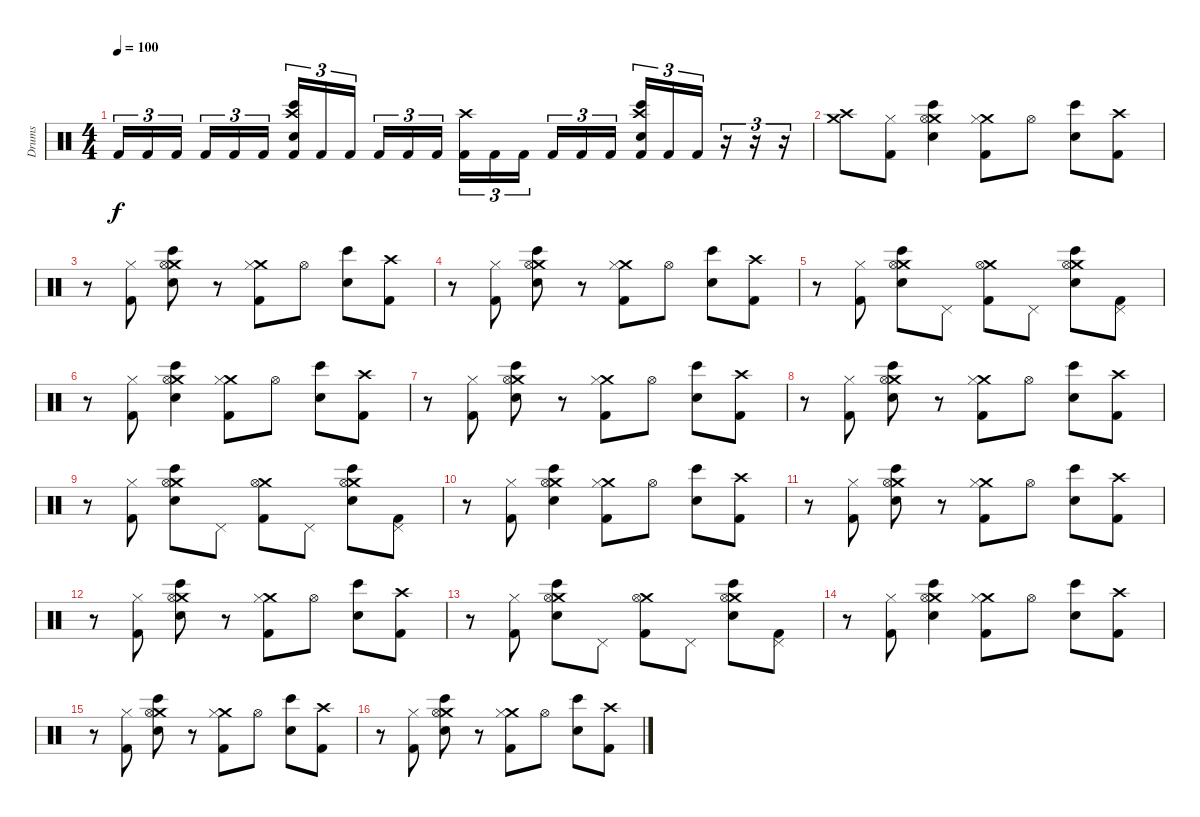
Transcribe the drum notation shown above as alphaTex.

\track ("Drums" "Drums") {instrument percussion}
\staff {score}
\articulation defaults
\ts (4 4)
\tempo 100
\clef neutral
\ks c "Kick (hit) 2".16{tu (3 2) dy f} "Kick (hit) 2".16{tu (3 2)} "Kick (hit) 2".16{tu (3 2) beam splitsecondary} "Kick (hit) 2".16{tu (3 2)} "Kick (hit) 2".16{tu (3 2)} "Kick (hit) 2".16{tu (3 2)}
("Crash high (hit)" "Kick (hit) 2" "Bongo High (hit)" "Electric Snare (hit)").16{tu (3 2)} "Kick (hit) 2".16{tu (3 2)} "Kick (hit) 2".16{tu (3 2) beam splitsecondary} "Kick (hit) 2".16{tu (3 2)} "Kick (hit) 2".16{tu (3 2)} "Kick (hit) 2".16{tu (3 2)} ("Crash high (hit)" "Kick (hit) 2").16{tu (3 2)} "Kick (hit) 2".16{tu (3 2)} "Kick (hit) 2".16{tu (3 2) beam splitsecondary} "Kick (hit) 2".16{tu (3 2)} "Kick (hit) 2".16{tu (3 2)} "Kick (hit) 2".16{tu (3 2)} ("Crash high (hit)" "Kick (hit) 2" "Bongo High (hit)" "Electric Snare (hit)").16{tu (3 2)} "Kick (hit) 2".16{tu (3 2)} "Kick (hit) 2".16{tu (3 2)} r.16{tu (3 2)} r.16{tu (3 2)} r.16{tu (3 2)} |
("Crash medium (hit)" "Crash high (hit)").8 ("Hi-Hat (closed)" "Kick (hit) 2").8 ("Crash medium (hit)" "Hi-Hat (open)" "Bongo High (hit)" "Electric Snare (hit)").4 ("Crash medium (hit)" "Hi-Hat (closed)" "Kick (hit) 2").8 "Hi-Hat (open)".8 ("Bongo High (hit)" "Electric Snare (hit)").8 ("Crash high (hit)" "Kick (hit) 2").8 |
r.8 ("Hi-Hat (closed)" "Kick (hit) 2").8 ("Crash medium (hit)" "Hi-Hat (open)" "Bongo High (hit)" "Electric Snare (hit)").8 r.8 ("Crash medium (hit)" "Hi-Hat (closed)" "Kick (hit) 2").8 "Hi-Hat (open)".8 ("Bongo High (hit)" "Electric Snare (hit)").8 ("Crash high (hit)" "Kick (hit) 2").8 |
r.8 ("Hi-Hat (closed)" "Kick (hit) 2").8 ("Crash medium (hit)" "Hi-Hat (open)" "Bongo High (hit)" "Electric Snare (hit)").8 r.8 ("Crash medium (hit)" "Hi-Hat (closed)" "Kick (hit) 2").8 "Hi-Hat (open)".8 ("Bongo High (hit)" "Electric Snare (hit)").8 ("Crash high (hit)" "Kick (hit) 2").8 |
r.8 ("Hi-Hat (closed)" "Kick (hit) 2").8 ("Crash medium (hit)" "Hi-Hat (open)" "Bongo High (hit)" "Electric Snare (hit)").8 "Pedal Hi-Hat (hit)".8 ("Crash medium (hit)" "Hi-Hat (open)" "Kick (hit) 2").8 "Pedal Hi-Hat (hit)".8 ("Crash medium (hit)" "Hi-Hat (open)" "Bongo High (hit)" "Electric Snare (hit)").8 ("Pedal Hi-Hat (hit)" "Kick (hit) 2").8 |
r.8 ("Hi-Hat (closed)" "Kick (hit) 2").8 ("Crash medium (hit)" "Hi-Hat (open)" "Bongo High (hit)" "Electric Snare (hit)").4 ("Crash medium (hit)" "Hi-Hat (closed)" "Kick (hit) 2").8 "Hi-Hat (open)".8 ("Bongo High (hit)" "Electric Snare (hit)").8 ("Crash high (hit)" "Kick (hit) 2").8 |
r.8 ("Hi-Hat (closed)" "Kick (hit) 2").8 ("Crash medium (hit)" "Hi-Hat (open)" "Bongo High (hit)" "Electric Snare (hit)").8 r.8 ("Crash medium (hit)" "Hi-Hat (closed)" "Kick (hit) 2").8 "Hi-Hat (open)".8 ("Bongo High (hit)" "Electric Snare (hit)").8 ("Crash high (hit)" "Kick (hit) 2").8 |
r.8 ("Hi-Hat (closed)" "Kick (hit) 2").8 ("Crash medium (hit)" "Hi-Hat (open)" "Bongo High (hit)" "Electric Snare (hit)").8 r.8 ("Crash medium (hit)" "Hi-Hat (closed)" "Kick (hit) 2").8 "Hi-Hat (open)".8 ("Bongo High (hit)" "Electric Snare (hit)").8 ("Crash high (hit)" "Kick (hit) 2").8 |
r.8 ("Hi-Hat (closed)" "Kick (hit) 2").8 ("Crash medium (hit)" "Hi-Hat (open)" "Bongo High (hit)" "Electric Snare (hit)").8 "Pedal Hi-Hat (hit)".8 ("Crash medium (hit)" "Hi-Hat (open)" "Kick (hit) 2").8 "Pedal Hi-Hat (hit)".8 ("Crash medium (hit)" "Hi-Hat (open)" "Bongo High (hit)" "Electric Snare (hit)").8 ("Pedal Hi-Hat (hit)" "Kick (hit) 2").8 |
r.8 ("Hi-Hat (closed)" "Kick (hit) 2").8 ("Crash medium (hit)" "Hi-Hat (open)" "Bongo High (hit)" "Electric Snare (hit)").4 ("Crash medium (hit)" "Hi-Hat (closed)" "Kick (hit) 2").8 "Hi-Hat (open)".8 ("Bongo High (hit)" "Electric Snare (hit)").8 ("Crash high (hit)" "Kick (hit) 2").8 |
r.8 ("Hi-Hat (closed)" "Kick (hit) 2").8 ("Crash medium (hit)" "Hi-Hat (open)" "Bongo High (hit)" "Electric Snare (hit)").8 r.8 ("Crash medium (hit)" "Hi-Hat (closed)" "Kick (hit) 2").8 "Hi-Hat (open)".8 ("Bongo High (hit)" "Electric Snare (hit)").8 ("Crash high (hit)" "Kick (hit) 2").8 |
r.8 ("Hi-Hat (closed)" "Kick (hit) 2").8 ("Crash medium (hit)" "Hi-Hat (open)" "Bongo High (hit)" "Electric Snare (hit)").8 r.8 ("Crash medium (hit)" "Hi-Hat (closed)" "Kick (hit) 2").8 "Hi-Hat (open)".8 ("Bongo High (hit)" "Electric Snare (hit)").8 ("Crash high (hit)" "Kick (hit) 2").8 |
r.8 ("Hi-Hat (closed)" "Kick (hit) 2").8 ("Crash medium (hit)" "Hi-Hat (open)" "Bongo High (hit)" "Electric Snare (hit)").8 "Pedal Hi-Hat (hit)".8 ("Crash medium (hit)" "Hi-Hat (open)" "Kick (hit) 2").8 "Pedal Hi-Hat (hit)".8 ("Crash medium (hit)" "Hi-Hat (open)" "Bongo High (hit)" "Electric Snare (hit)").8 ("Pedal Hi-Hat (hit)" "Kick (hit) 2").8 |
r.8 ("Hi-Hat (closed)" "Kick (hit) 2").8 ("Crash medium (hit)" "Hi-Hat (open)" "Bongo High (hit)" "Electric Snare (hit)").4 ("Crash medium (hit)" "Hi-Hat (closed)" "Kick (hit) 2").8 "Hi-Hat (open)".8 ("Bongo High (hit)" "Electric Snare (hit)").8 ("Crash high (hit)" "Kick (hit) 2").8 |
r.8 ("Hi-Hat (closed)" "Kick (hit) 2").8 ("Crash medium (hit)" "Hi-Hat (open)" "Bongo High (hit)" "Electric Snare (hit)").8 r.8 ("Crash medium (hit)" "Hi-Hat (closed)" "Kick (hit) 2").8 "Hi-Hat (open)".8 ("Bongo High (hit)" "Electric Snare (hit)").8 ("Crash high (hit)" "Kick (hit) 2").8 |
r.8 ("Hi-Hat (closed)" "Kick (hit) 2").8 ("Crash medium (hit)" "Hi-Hat (open)" "Bongo High (hit)" "Electric Snare (hit)").8 r.8 ("Crash medium (hit)" "Hi-Hat (closed)" "Kick (hit) 2").8 "Hi-Hat (open)".8 ("Bongo High (hit)" "Electric Snare (hit)").8 ("Crash high (hit)" "Kick (hit) 2").8
